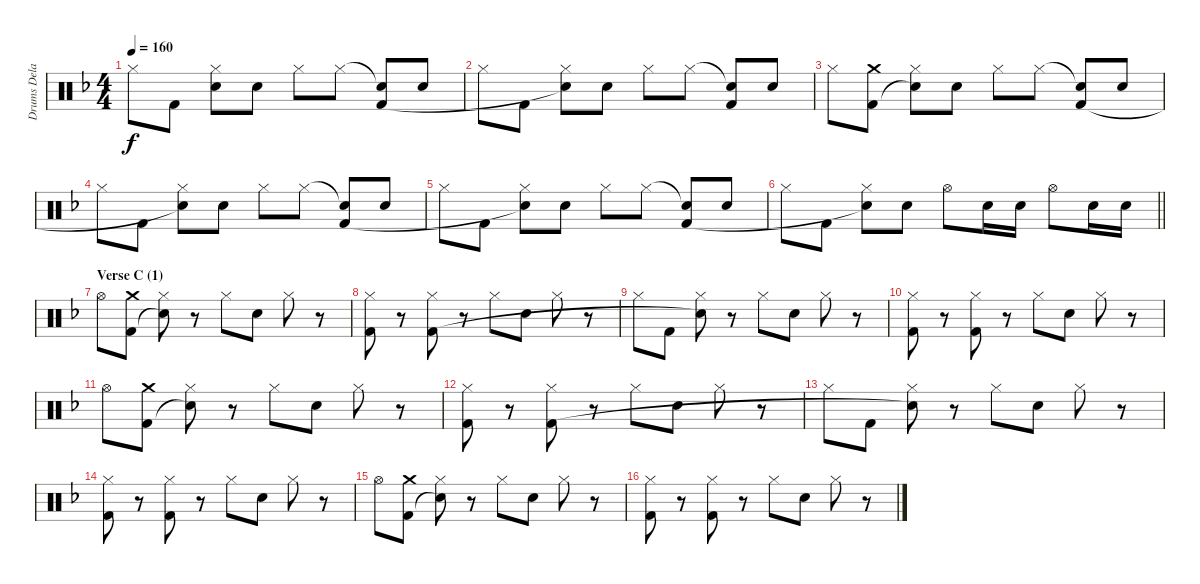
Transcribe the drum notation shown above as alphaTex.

\track ("Drums Delay" "Drums Dela") {instrument percussion}
\staff {score}
\articulation defaults
\ts (4 4)
\tempo 160
\clef neutral
\ks f "Hi-Hat (closed)".8{dy f} "Kick (hit) 2".8
("Hi-Hat (closed)" "Snare (hit)"{t}).8 "Electric Snare (hit)".8 "Hi-Hat (closed)".8 "Hi-Hat (closed)".8 ("Snare (hit)"{t} "Kick (hit) 2").8 "Electric Snare (hit)".8 |
"Hi-Hat (closed)".8 "Kick (hit) 2".8 ("Hi-Hat (closed)" "Snare (hit)"{t}).8 "Electric Snare (hit)".8 "Hi-Hat (closed)".8 "Hi-Hat (closed)".8 ("Snare (hit)"{t} "Kick (hit) 2").8 "Electric Snare (hit)".8 |
"Hi-Hat (closed)".8 ("Crash medium (hit)" "Kick (hit) 2").8 ("Hi-Hat (closed)" "Snare (hit)"{t}).8 "Electric Snare (hit)".8 "Hi-Hat (closed)".8 "Hi-Hat (closed)".8 ("Snare (hit)"{t} "Kick (hit) 2").8 "Electric Snare (hit)".8 |
"Hi-Hat (closed)".8 "Kick (hit) 2".8 ("Hi-Hat (closed)" "Snare (hit)"{t}).8 "Electric Snare (hit)".8 "Hi-Hat (closed)".8 "Hi-Hat (closed)".8 ("Snare (hit)"{t} "Kick (hit) 2").8 "Electric Snare (hit)".8 |
"Hi-Hat (closed)".8 "Kick (hit) 2".8 ("Hi-Hat (closed)" "Snare (hit)"{t}).8 "Electric Snare (hit)".8 "Hi-Hat (closed)".8 "Hi-Hat (closed)".8 ("Snare (hit)"{t} "Kick (hit) 2").8 "Electric Snare (hit)".8 |
\barLineRight lightlight "Hi-Hat (closed)".8 "Kick (hit) 2".8
("Hi-Hat (closed)" "Snare (hit)"{t}).8 "Electric Snare (hit)".8 "Hi-Hat (open)".8 "Electric Snare (hit)".16 "Electric Snare (hit)".16 "Hi-Hat (open)".8 "Electric Snare (hit)".16 "Electric Snare (hit)".16 |
\section ("" "Verse C (1)")
"Hi-Hat (open)".8 ("Crash medium (hit)" "Kick (hit) 2").8 ("Hi-Hat (closed)" "Snare (hit)"{t}).8 r.8 "Hi-Hat (closed)".8 "Electric Snare (hit)".8 "Hi-Hat (closed)".8 r.8 |
("Hi-Hat (closed)" "Kick (hit) 2").8 r.8 ("Hi-Hat (closed)" "Kick (hit) 2").8 r.8 "Hi-Hat (closed)".8 "Electric Snare (hit)".8 "Hi-Hat (closed)".8 r.8 |
"Hi-Hat (closed)".8 "Kick (hit) 2".8 ("Hi-Hat (closed)" "Snare (hit)"{t}).8 r.8 "Hi-Hat (closed)".8 "Electric Snare (hit)".8 "Hi-Hat (closed)".8 r.8 |
("Hi-Hat (closed)" "Kick (hit) 2").8 r.8 ("Hi-Hat (closed)" "Kick (hit) 2").8 r.8 "Hi-Hat (closed)".8 "Electric Snare (hit)".8 "Hi-Hat (closed)".8 r.8 |
"Hi-Hat (open)".8 ("Crash medium (hit)" "Kick (hit) 2").8 ("Hi-Hat (closed)" "Snare (hit)"{t}).8 r.8 "Hi-Hat (closed)".8 "Electric Snare (hit)".8 "Hi-Hat (closed)".8 r.8 |
("Hi-Hat (closed)" "Kick (hit) 2").8 r.8 ("Hi-Hat (closed)" "Kick (hit) 2").8 r.8 "Hi-Hat (closed)".8 "Electric Snare (hit)".8 "Hi-Hat (closed)".8 r.8 |
"Hi-Hat (closed)".8 "Kick (hit) 2".8 ("Hi-Hat (closed)" "Snare (hit)"{t}).8 r.8 "Hi-Hat (closed)".8 "Electric Snare (hit)".8 "Hi-Hat (closed)".8 r.8 |
("Hi-Hat (closed)" "Kick (hit) 2").8 r.8 ("Hi-Hat (closed)" "Kick (hit) 2").8 r.8 "Hi-Hat (closed)".8 "Electric Snare (hit)".8 "Hi-Hat (closed)".8 r.8 |
"Hi-Hat (open)".8 ("Crash medium (hit)" "Kick (hit) 2").8 ("Hi-Hat (closed)" "Snare (hit)"{t}).8 r.8 "Hi-Hat (closed)".8 "Electric Snare (hit)".8 "Hi-Hat (closed)".8 r.8 |
("Hi-Hat (closed)" "Kick (hit) 2").8 r.8 ("Hi-Hat (closed)" "Kick (hit) 2").8 r.8 "Hi-Hat (closed)".8 "Electric Snare (hit)".8 "Hi-Hat (closed)".8 r.8
